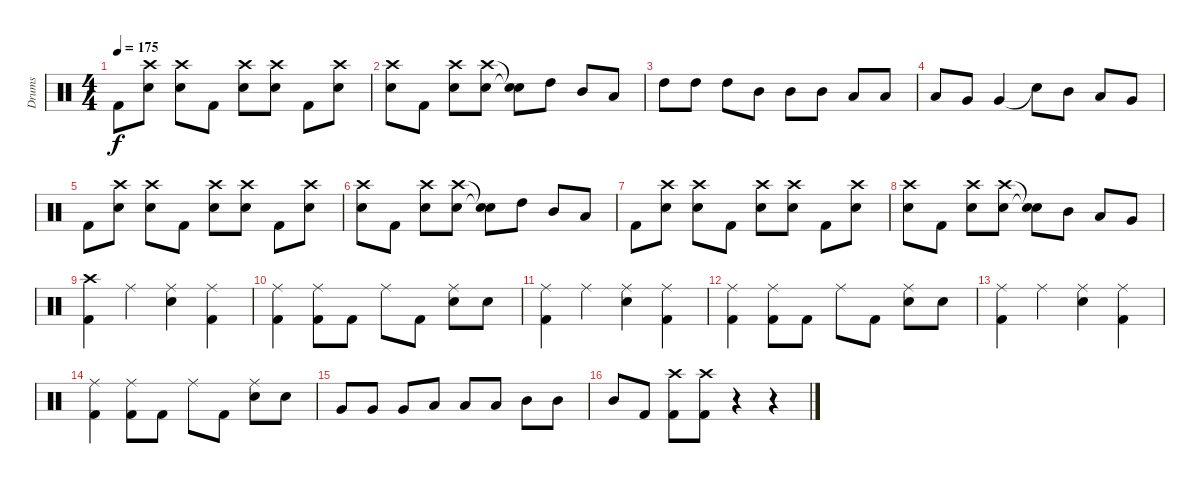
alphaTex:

\track ("Drums" "Drums") {mute instrument percussion}
\staff {score}
\articulation defaults
\ts (4 4)
\tempo 175
\clef neutral
\ks c "Kick (hit) 2".8{dy f}
("Crash high (hit)" "Electric Snare (hit)").8 ("Crash high (hit)" "Electric Snare (hit)").8 "Kick (hit) 2".8 ("Crash high (hit)" "Electric Snare (hit)").8 ("Crash high (hit)" "Electric Snare (hit)").8 "Kick (hit) 2".8 ("Crash high (hit)" "Electric Snare (hit)").8 |
("Crash high (hit)" "Electric Snare (hit)").8 "Kick (hit) 2".8 ("Crash high (hit)" "Electric Snare (hit)").8 ("Crash high (hit)" "Electric Snare (hit)").8 ("Snare (hit)"{t} "Snare (hit)"{t}).8 "High Tom (hit)".8 "Mid Tom (hit)".8 "Low Tom (hit)".8 |
"High Tom (hit)".8 "High Tom (hit)".8 "High Tom (hit)".8 "Mid Tom (hit)".8 "Mid Tom (hit)".8 "Mid Tom (hit)".8 "Low Tom (hit)".8 "Low Tom (hit)".8 |
"Low Tom (hit)".8 "Very Low Tom (hit)".8 "Very Low Tom (hit)".4 "Snare (hit)"{t}.8 "Mid Tom (hit)".8 "Low Tom (hit)".8 "Very Low Tom (hit)".8 |
"Kick (hit) 2".8 ("Crash high (hit)" "Electric Snare (hit)").8 ("Crash high (hit)" "Electric Snare (hit)").8 "Kick (hit) 2".8 ("Crash high (hit)" "Electric Snare (hit)").8 ("Crash high (hit)" "Electric Snare (hit)").8 "Kick (hit) 2".8 ("Crash high (hit)" "Electric Snare (hit)").8 |
("Crash high (hit)" "Electric Snare (hit)").8 "Kick (hit) 2".8 ("Crash high (hit)" "Electric Snare (hit)").8 ("Crash high (hit)" "Electric Snare (hit)").8 ("Snare (hit)"{t} "Snare (hit)"{t}).8 "High Tom (hit)".8 "Mid Tom (hit)".8 "Low Tom (hit)".8 |
"Kick (hit) 2".8 ("Crash high (hit)" "Electric Snare (hit)").8 ("Crash high (hit)" "Electric Snare (hit)").8 "Kick (hit) 2".8 ("Crash high (hit)" "Electric Snare (hit)").8 ("Crash high (hit)" "Electric Snare (hit)").8 "Kick (hit) 2".8 ("Crash high (hit)" "Electric Snare (hit)").8 |
("Crash high (hit)" "Electric Snare (hit)").8 "Kick (hit) 2".8 ("Crash high (hit)" "Electric Snare (hit)").8 ("Crash high (hit)" "Electric Snare (hit)").8 ("Snare (hit)"{t} "Snare (hit)"{t}).8 "Mid Tom (hit)".8 "Low Tom (hit)".8 "Very Low Tom (hit)".8 |
("Crash high (hit)" "Kick (hit) 2").4 "Ride (middle)".4 ("Ride (middle)" "Electric Snare (hit)").4 ("Ride (middle)" "Kick (hit) 2").4 |
("Ride (middle)" "Kick (hit) 2").4 ("Ride (middle)" "Kick (hit) 2").8 "Kick (hit) 2".8 "Ride (middle)".8 "Kick (hit) 2".8 ("Ride (middle)" "Electric Snare (hit)").8 "Electric Snare (hit)".8 |
("Ride (middle)" "Kick (hit) 2").4 "Ride (middle)".4 ("Ride (middle)" "Electric Snare (hit)").4 ("Ride (middle)" "Kick (hit) 2").4 |
("Ride (middle)" "Kick (hit) 2").4 ("Ride (middle)" "Kick (hit) 2").8 "Kick (hit) 2".8 "Ride (middle)".8 "Kick (hit) 2".8 ("Ride (middle)" "Electric Snare (hit)").8 "Electric Snare (hit)".8 |
("Ride (middle)" "Kick (hit) 2").4 "Ride (middle)".4 ("Ride (middle)" "Electric Snare (hit)").4 ("Ride (middle)" "Kick (hit) 2").4 |
("Ride (middle)" "Kick (hit) 2").4 ("Ride (middle)" "Kick (hit) 2").8 "Kick (hit) 2".8 "Ride (middle)".8 "Kick (hit) 2".8 ("Ride (middle)" "Electric Snare (hit)").8 "Electric Snare (hit)".8 |
"Very Low Tom (hit)".8 "Very Low Tom (hit)".8 "Very Low Tom (hit)".8 "Low Tom (hit)".8 "Low Tom (hit)".8 "Low Tom (hit)".8 "Mid Tom (hit)".8 "Mid Tom (hit)".8 |
"Mid Tom (hit)".8 "Kick (hit) 2".8 ("Crash high (hit)" "Kick (hit) 2").8 ("Crash high (hit)" "Kick (hit) 2").8 r.4 r.4
